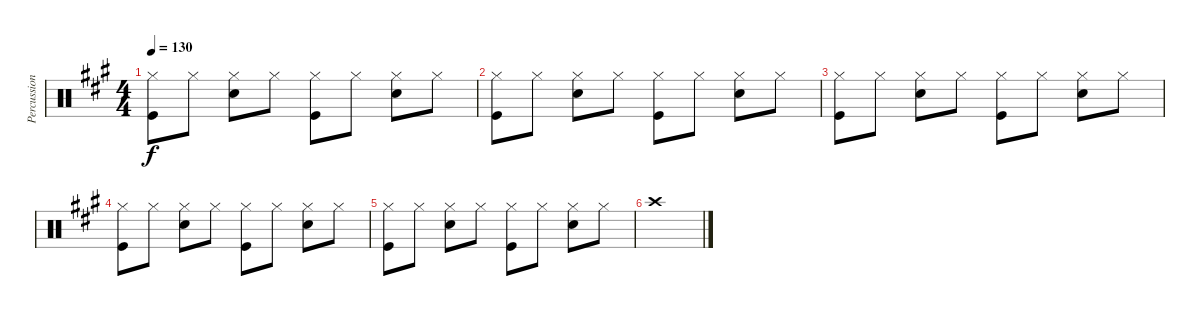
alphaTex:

\track ("Percussion" "Percussion") {instrument percussion}
\staff {score}
\articulation defaults
\ts (4 4)
\tempo 130
\clef neutral
\ks a
("Hi-Hat (closed)" "Kick (hit)").8{dy f} "Hi-Hat (closed)".8 ("Hi-Hat (closed)" "Snare (hit) 2").8 "Hi-Hat (closed)".8 ("Hi-Hat (closed)" "Kick (hit)").8 "Hi-Hat (closed)".8 ("Hi-Hat (closed)" "Snare (hit) 2").8 "Hi-Hat (closed)".8 |
("Hi-Hat (closed)" "Kick (hit)").8 "Hi-Hat (closed)".8 ("Hi-Hat (closed)" "Snare (hit) 2").8 "Hi-Hat (closed)".8 ("Hi-Hat (closed)" "Kick (hit)").8 "Hi-Hat (closed)".8 ("Hi-Hat (closed)" "Snare (hit) 2").8 "Hi-Hat (closed)".8 |
("Hi-Hat (closed)" "Kick (hit)").8 "Hi-Hat (closed)".8 ("Hi-Hat (closed)" "Snare (hit) 2").8 "Hi-Hat (closed)".8 ("Hi-Hat (closed)" "Kick (hit)").8 "Hi-Hat (closed)".8 ("Hi-Hat (closed)" "Snare (hit) 2").8 "Hi-Hat (closed)".8 |
("Hi-Hat (closed)" "Kick (hit)").8 "Hi-Hat (closed)".8 ("Hi-Hat (closed)" "Snare (hit) 2").8 "Hi-Hat (closed)".8 ("Hi-Hat (closed)" "Kick (hit)").8 "Hi-Hat (closed)".8 ("Hi-Hat (closed)" "Snare (hit) 2").8 "Hi-Hat (closed)".8 |
("Hi-Hat (closed)" "Kick (hit)").8 "Hi-Hat (closed)".8 ("Hi-Hat (closed)" "Snare (hit) 2").8 "Hi-Hat (closed)".8 ("Hi-Hat (closed)" "Kick (hit)").8 "Hi-Hat (closed)".8 ("Hi-Hat (closed)" "Snare (hit) 2").8 "Hi-Hat (closed)".8 |
"Crash high (hit)".1
